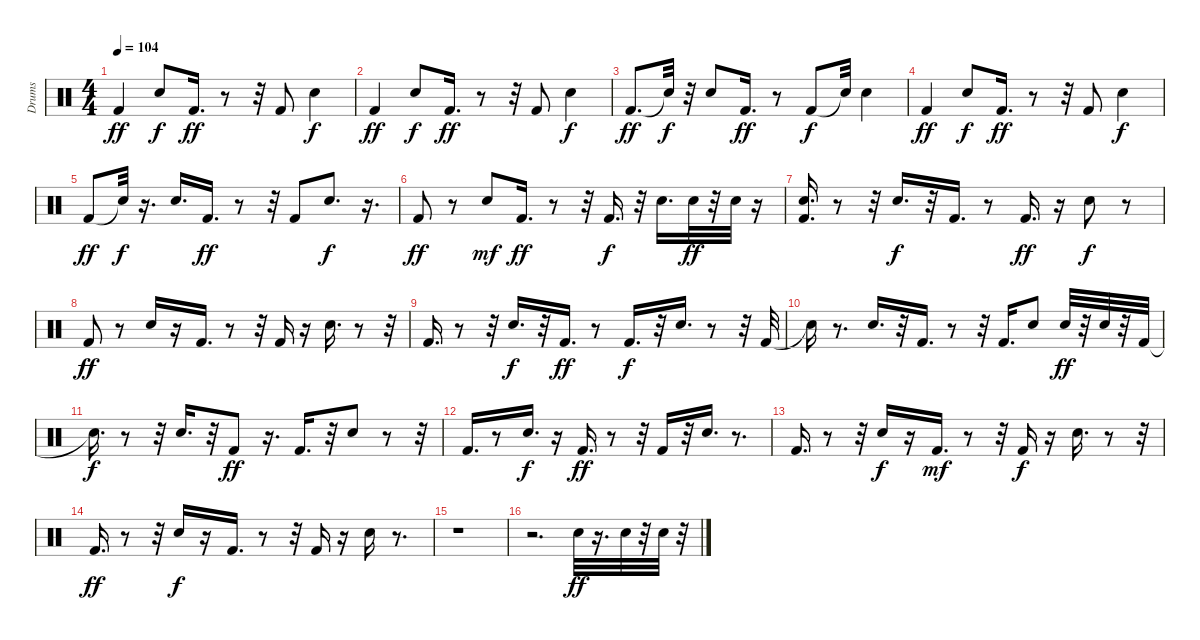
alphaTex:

\track ("Drums" "Drums") {instrument percussion}
\staff {score}
\articulation defaults
\ts (4 4)
\tempo 104
\clef neutral
\ks c "Kick (hit) 2".4{dy ff} "Snare (hit) 2".8{dy f} "Kick (hit) 2".16{d dy ff}
r.8 r.32 "Kick (hit) 2".8 "Snare (hit) 2".4{dy f} |
"Kick (hit) 2".4{dy ff} "Snare (hit) 2".8{dy f} "Kick (hit) 2".16{d dy ff} r.8 r.32 "Kick (hit) 2".8 "Snare (hit) 2".4{dy f} |
"Kick (hit) 2".8{d dy ff} "Snare (hit)"{t}.32{dy f} r.32 "Snare (hit) 2".8 "Kick (hit) 2".16{d dy ff} r.8 "Kick (hit) 2".8{dy f} "Snare (hit)"{t}.32 "Snare (hit) 2".4 |
"Kick (hit) 2".4{dy ff} "Snare (hit) 2".8{dy f} "Kick (hit) 2".16{d dy ff} r.8 r.32 "Kick (hit) 2".8 "Snare (hit) 2".4{dy f} |
"Kick (hit) 2".8{dy ff} "Snare (hit)"{t}.32{dy f} r.16{d} "Snare (hit) 2".16{d} "Kick (hit) 2".16{d dy ff} r.8 r.32 "Kick (hit) 2".8 "Snare (hit) 2".8{d dy f} r.16{d} |
"Kick (hit) 2".8{dy ff} r.8 "Snare (hit) 2".8{dy mf} "Kick (hit) 2".16{d dy ff} r.8 r.32 "Kick (hit) 2".16{d dy f} r.32 "Snare (hit) 2".16{d} "Snare (hit) 2".32{dy ff} r.32 "Snare (hit) 2".32 r.16 |
("Snare (hit) 2" "Kick (hit) 2").16{d} r.8 r.32 "Snare (hit) 2".16{d dy f} r.32 "Kick (hit) 2".16{d} r.8 "Kick (hit) 2".16{d dy ff} r.16 "Snare (hit) 2".8{dy f} r.8 |
"Kick (hit) 2".8{dy ff} r.8 "Snare (hit) 2".16 r.16 "Kick (hit) 2".16{d} r.8 r.32 "Kick (hit) 2".16 r.16 "Snare (hit) 2".16{d} r.8 r.32 |
"Kick (hit) 2".16{d} r.8 r.32 "Snare (hit) 2".16{d dy f} r.32 "Kick (hit) 2".16{d dy ff} r.8 "Kick (hit) 2".16{d dy f} r.32 "Snare (hit) 2".16{d} r.8 r.32 "Kick (hit) 2".32 |
"Snare (hit)"{t}.16 r.8{d} "Snare (hit) 2".16{d} r.32 "Kick (hit) 2".16{d} r.8 r.32 "Kick (hit) 2".16{d} "Snare (hit) 2".8 "Snare (hit) 2".32{dy ff} r.32 "Snare (hit) 2".32 r.32 "Kick (hit) 2".32 |
"Snare (hit)"{t}.16{d dy f} r.8 r.32 "Snare (hit) 2".16{d} r.32 "Kick (hit) 2".8{dy ff} r.16{d} "Kick (hit) 2".16{d} r.32 "Snare (hit) 2".8 r.8 r.32 |
"Kick (hit) 2".16{d} r.8 "Snare (hit) 2".16{d dy f} r.16 "Kick (hit) 2".16{d dy ff} r.8 r.32 "Kick (hit) 2".16 r.32 "Snare (hit) 2".16{d} r.8{d} |
"Kick (hit) 2".16{d} r.8 r.32 "Snare (hit) 2".16{dy f} r.16 "Kick (hit) 2".16{d dy mf} r.8 r.32 "Kick (hit) 2".16{dy f} r.16 "Snare (hit) 2".16{d} r.8 r.32 |
"Kick (hit) 2".16{d dy ff} r.8 r.32 "Snare (hit) 2".16{dy f} r.16 "Kick (hit) 2".16{d} r.8 r.32 "Kick (hit) 2".16 r.16 "Snare (hit) 2".16 r.8{d} |
r.1 |
r.2{d} "Snare (hit) 2".32{dy ff} r.16{d} "Snare (hit) 2".32 r.32 "Snare (hit) 2".32 r.32
